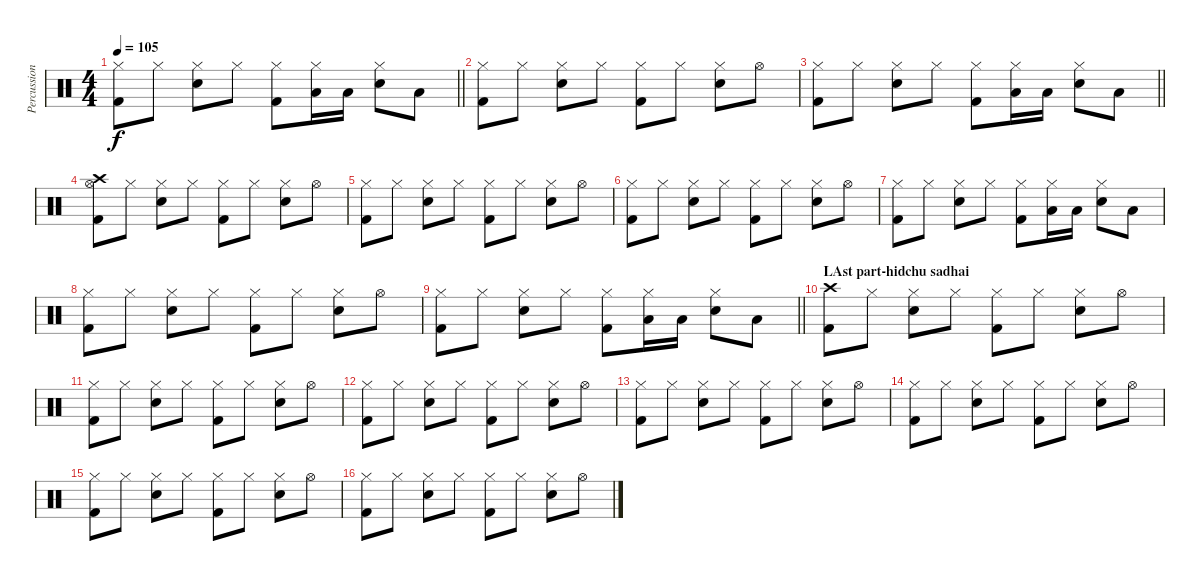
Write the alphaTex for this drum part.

\track ("Percussion" "Percussion") {instrument percussion}
\staff {score}
\articulation defaults
\ts (4 4)
\tempo 105
\clef neutral
\barLineRight lightlight
\ks c
("Kick (hit) 2" "Hi-Hat (closed)").8{dy f} "Hi-Hat (closed)".8 ("Snare (hit) 2" "Hi-Hat (closed)").8 "Hi-Hat (closed)".8 ("Kick (hit) 2" "Hi-Hat (closed)").8 ("Low Tom (hit)" "Hi-Hat (closed)").16 "Low Tom (hit)".16 ("Snare (hit) 2" "Hi-Hat (closed)").8 "Low Tom (hit)".8 |
("Kick (hit) 2" "Hi-Hat (closed)").8 "Hi-Hat (closed)".8 ("Snare (hit) 2" "Hi-Hat (closed)").8 "Hi-Hat (closed)".8 ("Kick (hit) 2" "Hi-Hat (closed)").8 "Hi-Hat (closed)".8 ("Snare (hit) 2" "Hi-Hat (closed)").8 "Hi-Hat (open)".8 |
\barLineRight lightlight
("Kick (hit) 2" "Hi-Hat (closed)").8 "Hi-Hat (closed)".8 ("Snare (hit) 2" "Hi-Hat (closed)").8 "Hi-Hat (closed)".8 ("Kick (hit) 2" "Hi-Hat (closed)").8 ("Low Tom (hit)" "Hi-Hat (closed)").16 "Low Tom (hit)".16 ("Snare (hit) 2" "Hi-Hat (closed)").8 "Low Tom (hit)".8 |
("Hi-Hat (open)" "Kick (hit) 2" "Crash high (hit)").8 "Hi-Hat (closed)".8 ("Snare (hit) 2" "Hi-Hat (closed)").8 "Hi-Hat (closed)".8 ("Kick (hit) 2" "Hi-Hat (closed)").8 "Hi-Hat (closed)".8 ("Snare (hit) 2" "Hi-Hat (closed)").8 "Hi-Hat (open)".8 |
("Kick (hit) 2" "Hi-Hat (closed)").8 "Hi-Hat (closed)".8 ("Snare (hit) 2" "Hi-Hat (closed)").8 "Hi-Hat (closed)".8 ("Kick (hit) 2" "Hi-Hat (closed)").8 "Hi-Hat (closed)".8 ("Snare (hit) 2" "Hi-Hat (closed)").8 "Hi-Hat (open)".8 |
("Kick (hit) 2" "Hi-Hat (closed)").8 "Hi-Hat (closed)".8 ("Snare (hit) 2" "Hi-Hat (closed)").8 "Hi-Hat (closed)".8 ("Kick (hit) 2" "Hi-Hat (closed)").8 "Hi-Hat (closed)".8 ("Snare (hit) 2" "Hi-Hat (closed)").8 "Hi-Hat (open)".8 |
("Kick (hit) 2" "Hi-Hat (closed)").8 "Hi-Hat (closed)".8 ("Snare (hit) 2" "Hi-Hat (closed)").8 "Hi-Hat (closed)".8 ("Kick (hit) 2" "Hi-Hat (closed)").8 ("Low Tom (hit)" "Hi-Hat (closed)").16 "Low Tom (hit)".16 ("Snare (hit) 2" "Hi-Hat (closed)").8 "Low Tom (hit)".8 |
("Kick (hit) 2" "Hi-Hat (closed)").8 "Hi-Hat (closed)".8 ("Snare (hit) 2" "Hi-Hat (closed)").8 "Hi-Hat (closed)".8 ("Kick (hit) 2" "Hi-Hat (closed)").8 "Hi-Hat (closed)".8 ("Snare (hit) 2" "Hi-Hat (closed)").8 "Hi-Hat (open)".8 |
\barLineRight lightlight
("Kick (hit) 2" "Hi-Hat (closed)").8 "Hi-Hat (closed)".8 ("Snare (hit) 2" "Hi-Hat (closed)").8 "Hi-Hat (closed)".8 ("Kick (hit) 2" "Hi-Hat (closed)").8 ("Low Tom (hit)" "Hi-Hat (closed)").16 "Low Tom (hit)".16 ("Snare (hit) 2" "Hi-Hat (closed)").8 "Low Tom (hit)".8 |
\section ("" "LAst part-hidchu sadhai")
("Kick (hit) 2" "Crash high (hit)").8 "Hi-Hat (closed)".8 ("Snare (hit) 2" "Hi-Hat (closed)").8 "Hi-Hat (closed)".8 ("Kick (hit) 2" "Hi-Hat (closed)").8 "Hi-Hat (closed)".8 ("Snare (hit) 2" "Hi-Hat (closed)").8 "Hi-Hat (open)".8 |
("Kick (hit) 2" "Hi-Hat (closed)").8 "Hi-Hat (closed)".8 ("Snare (hit) 2" "Hi-Hat (closed)").8 "Hi-Hat (closed)".8 ("Kick (hit) 2" "Hi-Hat (closed)").8 "Hi-Hat (closed)".8 ("Snare (hit) 2" "Hi-Hat (closed)").8 "Hi-Hat (open)".8 |
("Kick (hit) 2" "Hi-Hat (closed)").8 "Hi-Hat (closed)".8 ("Snare (hit) 2" "Hi-Hat (closed)").8 "Hi-Hat (closed)".8 ("Kick (hit) 2" "Hi-Hat (closed)").8 "Hi-Hat (closed)".8 ("Snare (hit) 2" "Hi-Hat (closed)").8 "Hi-Hat (open)".8 |
("Kick (hit) 2" "Hi-Hat (closed)").8 "Hi-Hat (closed)".8 ("Snare (hit) 2" "Hi-Hat (closed)").8 "Hi-Hat (closed)".8 ("Kick (hit) 2" "Hi-Hat (closed)").8 "Hi-Hat (closed)".8 ("Snare (hit) 2" "Hi-Hat (closed)").8 "Hi-Hat (open)".8 |
("Kick (hit) 2" "Hi-Hat (closed)").8 "Hi-Hat (closed)".8 ("Snare (hit) 2" "Hi-Hat (closed)").8 "Hi-Hat (closed)".8 ("Kick (hit) 2" "Hi-Hat (closed)").8 "Hi-Hat (closed)".8 ("Snare (hit) 2" "Hi-Hat (closed)").8 "Hi-Hat (open)".8 |
("Kick (hit) 2" "Hi-Hat (closed)").8 "Hi-Hat (closed)".8 ("Snare (hit) 2" "Hi-Hat (closed)").8 "Hi-Hat (closed)".8 ("Kick (hit) 2" "Hi-Hat (closed)").8 "Hi-Hat (closed)".8 ("Snare (hit) 2" "Hi-Hat (closed)").8 "Hi-Hat (open)".8 |
("Kick (hit) 2" "Hi-Hat (closed)").8 "Hi-Hat (closed)".8 ("Snare (hit) 2" "Hi-Hat (closed)").8 "Hi-Hat (closed)".8 ("Kick (hit) 2" "Hi-Hat (closed)").8 "Hi-Hat (closed)".8 ("Snare (hit) 2" "Hi-Hat (closed)").8 "Hi-Hat (open)".8
